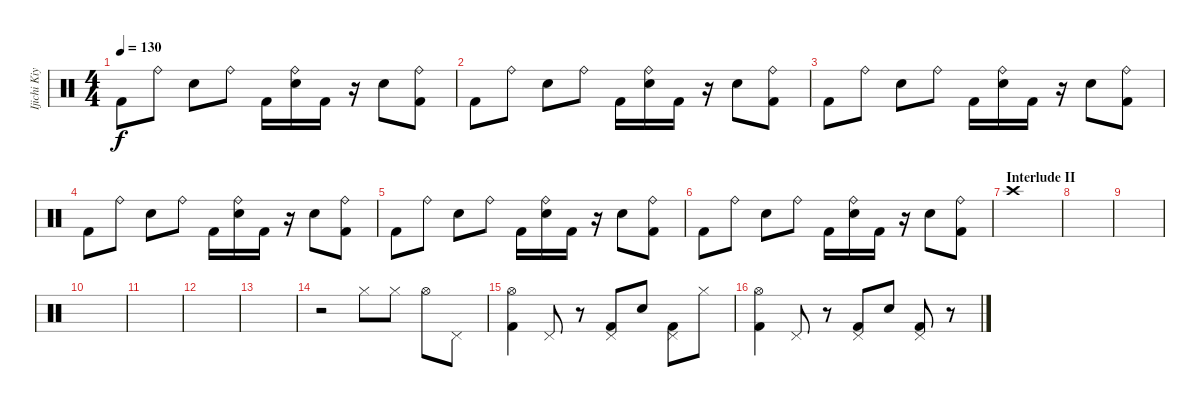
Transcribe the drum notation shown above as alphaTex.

\track ("Ijichi Kiyoshi (Drums)" "Ijichi Kiy") {instrument percussion}
\staff {score}
\articulation defaults
\ts (4 4)
\tempo 130
\clef neutral
\ks c "Kick (hit) 2".8{dy f} "Ride (bell)".8 "Snare (hit) 2".8 "Ride (bell)".8 "Kick (hit) 2".16
("Ride (bell)" "Snare (hit) 2").16 "Kick (hit) 2".16 r.16 "Snare (hit) 2".8 ("Ride (bell)" "Kick (hit) 2").8 |
"Kick (hit) 2".8 "Ride (bell)".8 "Snare (hit) 2".8 "Ride (bell)".8 "Kick (hit) 2".16 ("Ride (bell)" "Snare (hit) 2").16 "Kick (hit) 2".16 r.16 "Snare (hit) 2".8 ("Ride (bell)" "Kick (hit) 2").8 |
"Kick (hit) 2".8 "Ride (bell)".8 "Snare (hit) 2".8 "Ride (bell)".8 "Kick (hit) 2".16 ("Ride (bell)" "Snare (hit) 2").16 "Kick (hit) 2".16 r.16 "Snare (hit) 2".8 ("Ride (bell)" "Kick (hit) 2").8 |
"Kick (hit) 2".8 "Ride (bell)".8 "Snare (hit) 2".8 "Ride (bell)".8 "Kick (hit) 2".16 ("Ride (bell)" "Snare (hit) 2").16 "Kick (hit) 2".16 r.16 "Snare (hit) 2".8 ("Ride (bell)" "Kick (hit) 2").8 |
"Kick (hit) 2".8 "Ride (bell)".8 "Snare (hit) 2".8 "Ride (bell)".8 "Kick (hit) 2".16 ("Ride (bell)" "Snare (hit) 2").16 "Kick (hit) 2".16 r.16 "Snare (hit) 2".8 ("Ride (bell)" "Kick (hit) 2").8 |
"Kick (hit) 2".8 "Ride (bell)".8 "Snare (hit) 2".8 "Ride (bell)".8 "Kick (hit) 2".16 ("Ride (bell)" "Snare (hit) 2").16 "Kick (hit) 2".16 r.16 "Snare (hit) 2".8 ("Ride (bell)" "Kick (hit) 2").8 |
\section ("" "Interlude II")
"Crash high (hit)".1 |
|
|
|
|
|
|
r.2 "Hi-Hat (closed)".8 "Hi-Hat (closed)".8 "Hi-Hat (open)".8 "Pedal Hi-Hat (hit)".8 |
("Hi-Hat (open)" "Kick (hit) 2").4 "Pedal Hi-Hat (hit)".8 r.8 ("Pedal Hi-Hat (hit)" "Kick (hit) 2").8 "Snare (hit) 2".8 ("Pedal Hi-Hat (hit)" "Kick (hit) 2").8 "Hi-Hat (closed)".8 |
("Hi-Hat (open)" "Kick (hit) 2").4 "Pedal Hi-Hat (hit)".8 r.8 ("Pedal Hi-Hat (hit)" "Kick (hit) 2").8 "Snare (hit) 2".8 ("Pedal Hi-Hat (hit)" "Kick (hit) 2").8 r.8
